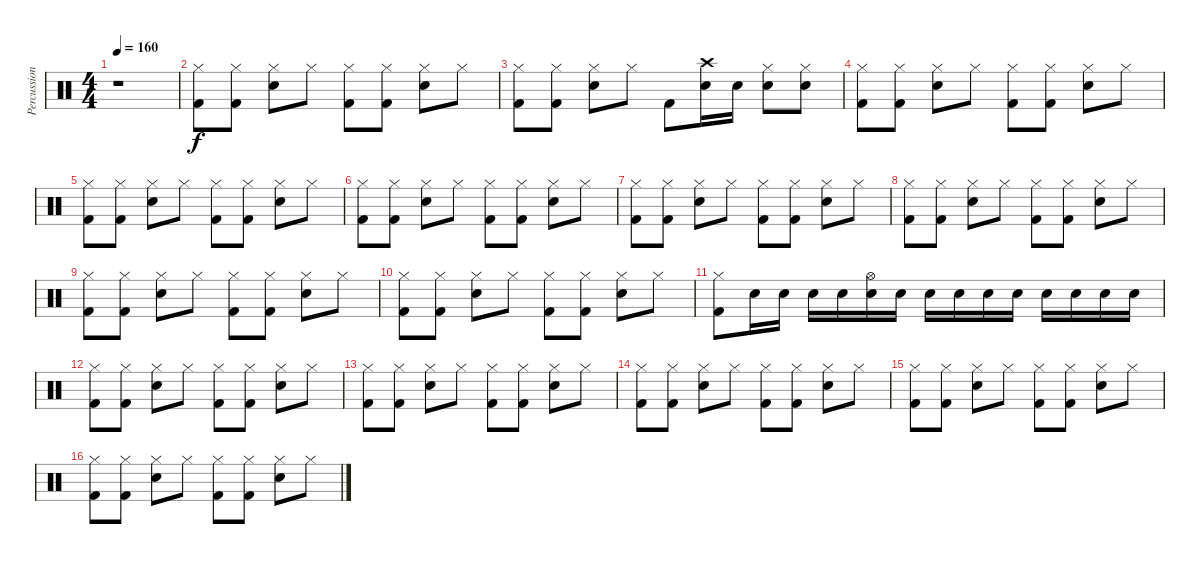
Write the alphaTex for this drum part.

\track ("Percussions" "Percussion") {instrument percussion}
\staff {score}
\articulation defaults
\ts (4 4)
\tempo 160
\clef neutral
\ks c
r.1{dy f} |
("Hi-Hat (closed)" "Kick (hit) 2").8 ("Hi-Hat (closed)" "Kick (hit) 2").8 ("Hi-Hat (closed)" "Snare (hit) 2").8 "Hi-Hat (closed)".8 ("Hi-Hat (closed)" "Kick (hit) 2").8 ("Hi-Hat (closed)" "Kick (hit) 2").8 ("Hi-Hat (closed)" "Snare (hit) 2").8 "Hi-Hat (closed)".8 |
("Hi-Hat (closed)" "Kick (hit) 2").8 ("Hi-Hat (closed)" "Kick (hit) 2").8 ("Hi-Hat (closed)" "Snare (hit) 2").8 "Hi-Hat (closed)".8 "Kick (hit) 2".8 ("Crash high (hit)" "Snare (hit) 2").16 "Snare (hit) 2".16 ("Hi-Hat (closed)" "Snare (hit) 2").8 ("Hi-Hat (closed)" "Snare (hit) 2").8 |
("Hi-Hat (closed)" "Kick (hit) 2").8 ("Hi-Hat (closed)" "Kick (hit) 2").8 ("Hi-Hat (closed)" "Snare (hit) 2").8 "Hi-Hat (closed)".8 ("Hi-Hat (closed)" "Kick (hit) 2").8 ("Hi-Hat (closed)" "Kick (hit) 2").8 ("Hi-Hat (closed)" "Snare (hit) 2").8 "Hi-Hat (closed)".8 |
("Hi-Hat (closed)" "Kick (hit) 2").8 ("Hi-Hat (closed)" "Kick (hit) 2").8 ("Hi-Hat (closed)" "Snare (hit) 2").8 "Hi-Hat (closed)".8 ("Hi-Hat (closed)" "Kick (hit) 2").8 ("Hi-Hat (closed)" "Kick (hit) 2").8 ("Hi-Hat (closed)" "Snare (hit) 2").8 "Hi-Hat (closed)".8 |
("Hi-Hat (closed)" "Kick (hit) 2").8 ("Hi-Hat (closed)" "Kick (hit) 2").8 ("Hi-Hat (closed)" "Snare (hit) 2").8 "Hi-Hat (closed)".8 ("Hi-Hat (closed)" "Kick (hit) 2").8 ("Hi-Hat (closed)" "Kick (hit) 2").8 ("Hi-Hat (closed)" "Snare (hit) 2").8 "Hi-Hat (closed)".8 |
("Hi-Hat (closed)" "Kick (hit) 2").8 ("Hi-Hat (closed)" "Kick (hit) 2").8 ("Hi-Hat (closed)" "Snare (hit) 2").8 "Hi-Hat (closed)".8 ("Hi-Hat (closed)" "Kick (hit) 2").8 ("Hi-Hat (closed)" "Kick (hit) 2").8 ("Hi-Hat (closed)" "Snare (hit) 2").8 "Hi-Hat (closed)".8 |
("Hi-Hat (closed)" "Kick (hit) 2").8 ("Hi-Hat (closed)" "Kick (hit) 2").8 ("Hi-Hat (closed)" "Snare (hit) 2").8 "Hi-Hat (closed)".8 ("Hi-Hat (closed)" "Kick (hit) 2").8 ("Hi-Hat (closed)" "Kick (hit) 2").8 ("Hi-Hat (closed)" "Snare (hit) 2").8 "Hi-Hat (closed)".8 |
("Hi-Hat (closed)" "Kick (hit) 2").8 ("Hi-Hat (closed)" "Kick (hit) 2").8 ("Hi-Hat (closed)" "Snare (hit) 2").8 "Hi-Hat (closed)".8 ("Hi-Hat (closed)" "Kick (hit) 2").8 ("Hi-Hat (closed)" "Kick (hit) 2").8 ("Hi-Hat (closed)" "Snare (hit) 2").8 "Hi-Hat (closed)".8 |
("Hi-Hat (closed)" "Kick (hit) 2").8 ("Hi-Hat (closed)" "Kick (hit) 2").8 ("Hi-Hat (closed)" "Snare (hit) 2").8 "Hi-Hat (closed)".8 ("Hi-Hat (closed)" "Kick (hit) 2").8 ("Hi-Hat (closed)" "Kick (hit) 2").8 ("Hi-Hat (closed)" "Snare (hit) 2").8 "Hi-Hat (closed)".8 |
("Hi-Hat (closed)" "Kick (hit) 2").8 "Snare (hit) 2".16 "Snare (hit) 2".16 "Snare (hit) 2".16 "Snare (hit) 2".16 ("Hi-Hat (open)" "Snare (hit) 2").16 "Snare (hit) 2".16 "Snare (hit) 2".16 "Snare (hit) 2".16 "Snare (hit) 2".16 "Snare (hit) 2".16 "Snare (hit) 2".16 "Snare (hit) 2".16 "Snare (hit) 2".16 "Snare (hit) 2".16 |
("Hi-Hat (closed)" "Kick (hit) 2").8 ("Hi-Hat (closed)" "Kick (hit) 2").8 ("Hi-Hat (closed)" "Snare (hit) 2").8 "Hi-Hat (closed)".8 ("Hi-Hat (closed)" "Kick (hit) 2").8 ("Hi-Hat (closed)" "Kick (hit) 2").8 ("Hi-Hat (closed)" "Snare (hit) 2").8 "Hi-Hat (closed)".8 |
("Hi-Hat (closed)" "Kick (hit) 2").8 ("Hi-Hat (closed)" "Kick (hit) 2").8 ("Hi-Hat (closed)" "Snare (hit) 2").8 "Hi-Hat (closed)".8 ("Hi-Hat (closed)" "Kick (hit) 2").8 ("Hi-Hat (closed)" "Kick (hit) 2").8 ("Hi-Hat (closed)" "Snare (hit) 2").8 "Hi-Hat (closed)".8 |
("Hi-Hat (closed)" "Kick (hit) 2").8 ("Hi-Hat (closed)" "Kick (hit) 2").8 ("Hi-Hat (closed)" "Snare (hit) 2").8 "Hi-Hat (closed)".8 ("Hi-Hat (closed)" "Kick (hit) 2").8 ("Hi-Hat (closed)" "Kick (hit) 2").8 ("Hi-Hat (closed)" "Snare (hit) 2").8 "Hi-Hat (closed)".8 |
("Hi-Hat (closed)" "Kick (hit) 2").8 ("Hi-Hat (closed)" "Kick (hit) 2").8 ("Hi-Hat (closed)" "Snare (hit) 2").8 "Hi-Hat (closed)".8 ("Hi-Hat (closed)" "Kick (hit) 2").8 ("Hi-Hat (closed)" "Kick (hit) 2").8 ("Hi-Hat (closed)" "Snare (hit) 2").8 "Hi-Hat (closed)".8 |
("Hi-Hat (closed)" "Kick (hit) 2").8 ("Hi-Hat (closed)" "Kick (hit) 2").8 ("Hi-Hat (closed)" "Snare (hit) 2").8 "Hi-Hat (closed)".8 ("Hi-Hat (closed)" "Kick (hit) 2").8 ("Hi-Hat (closed)" "Kick (hit) 2").8 ("Hi-Hat (closed)" "Snare (hit) 2").8 "Hi-Hat (closed)".8
